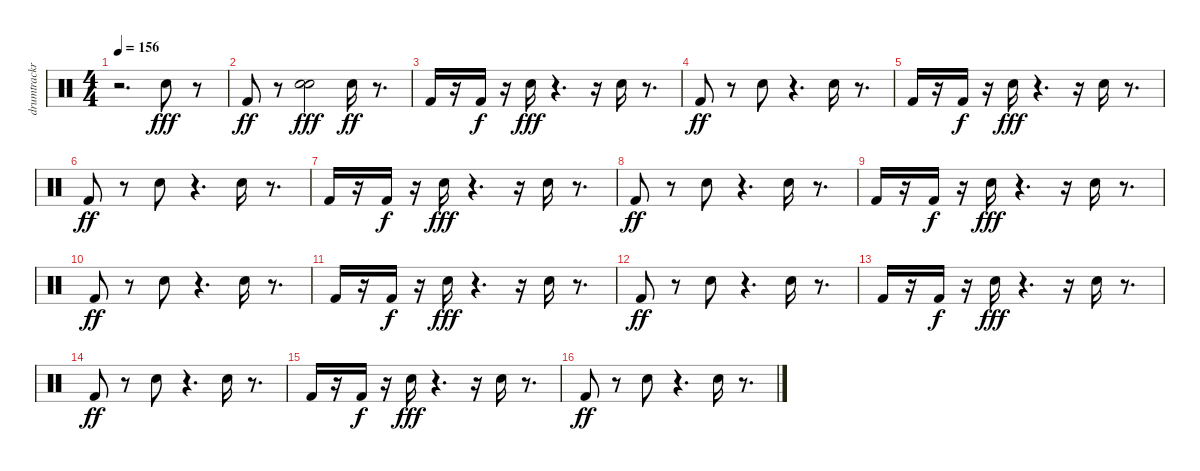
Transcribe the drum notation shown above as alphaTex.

\track ("drumtrackr " "drumtrackr") {instrument percussion}
\staff {score}
\articulation defaults
\ts (4 4)
\tempo 156
\clef neutral
\ks c
r.2{d dy ff} "Snare (hit) 2".8{dy fff} r.8 |
"Kick (hit) 2".8{dy ff} r.8 ("Snare (hit) 2" "Snare (hit) 2").2{dy fff} "Snare (hit) 2".16{dy ff} r.8{d} |
"Kick (hit) 2".16 r.16 "Kick (hit) 2".16{dy f} r.16 "Snare (hit) 2".16{dy fff} r.4{d} r.16 "Snare (hit) 2".16 r.8{d} |
"Kick (hit) 2".8{dy ff} r.8 "Snare (hit) 2".8 r.4{d} "Snare (hit) 2".16 r.8{d} |
"Kick (hit) 2".16 r.16 "Kick (hit) 2".16{dy f} r.16 "Snare (hit) 2".16{dy fff} r.4{d} r.16 "Snare (hit) 2".16 r.8{d} |
"Kick (hit) 2".8{dy ff} r.8 "Snare (hit) 2".8 r.4{d} "Snare (hit) 2".16 r.8{d} |
"Kick (hit) 2".16 r.16 "Kick (hit) 2".16{dy f} r.16 "Snare (hit) 2".16{dy fff} r.4{d} r.16 "Snare (hit) 2".16 r.8{d} |
"Kick (hit) 2".8{dy ff} r.8 "Snare (hit) 2".8 r.4{d} "Snare (hit) 2".16 r.8{d} |
"Kick (hit) 2".16 r.16 "Kick (hit) 2".16{dy f} r.16 "Snare (hit) 2".16{dy fff} r.4{d} r.16 "Snare (hit) 2".16 r.8{d} |
"Kick (hit) 2".8{dy ff} r.8 "Snare (hit) 2".8 r.4{d} "Snare (hit) 2".16 r.8{d} |
"Kick (hit) 2".16 r.16 "Kick (hit) 2".16{dy f} r.16 "Snare (hit) 2".16{dy fff} r.4{d} r.16 "Snare (hit) 2".16 r.8{d} |
"Kick (hit) 2".8{dy ff} r.8 "Snare (hit) 2".8 r.4{d} "Snare (hit) 2".16 r.8{d} |
"Kick (hit) 2".16 r.16 "Kick (hit) 2".16{dy f} r.16 "Snare (hit) 2".16{dy fff} r.4{d} r.16 "Snare (hit) 2".16 r.8{d} |
"Kick (hit) 2".8{dy ff} r.8 "Snare (hit) 2".8 r.4{d} "Snare (hit) 2".16 r.8{d} |
"Kick (hit) 2".16 r.16 "Kick (hit) 2".16{dy f} r.16 "Snare (hit) 2".16{dy fff} r.4{d} r.16 "Snare (hit) 2".16 r.8{d} |
"Kick (hit) 2".8{dy ff} r.8 "Snare (hit) 2".8 r.4{d} "Snare (hit) 2".16 r.8{d}
